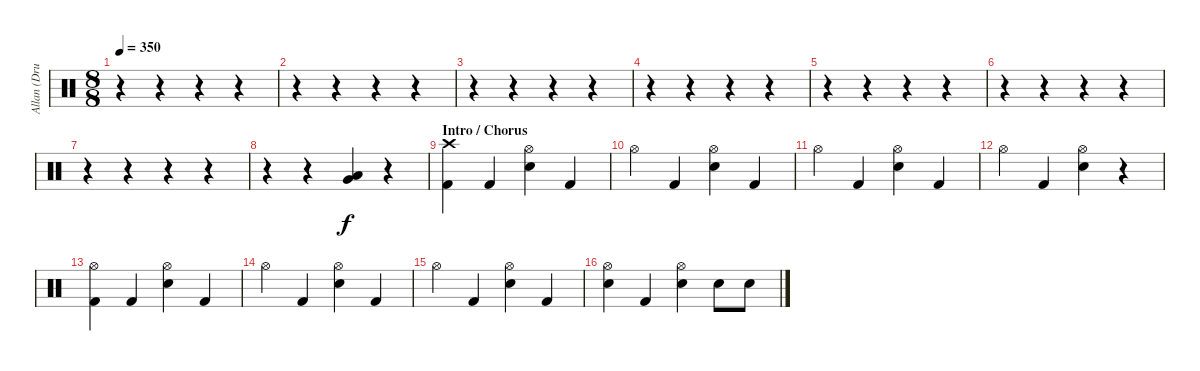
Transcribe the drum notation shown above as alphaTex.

\track ("Allan (Drums)" "Allan (Dru") {instrument percussion}
\staff {score}
\articulation defaults
\ts (8 8)
\tempo 350
\clef neutral
\ks c
r.4{dy f} r.4 r.4 r.4 |
r.4 r.4 r.4 r.4 |
r.4 r.4 r.4 r.4 |
r.4 r.4 r.4 r.4 |
r.4 r.4 r.4 r.4 |
r.4 r.4 r.4 r.4 |
r.4 r.4 r.4 r.4 |
r.4 r.4 ("Very Low Tom (hit)" "Low Tom (hit)").4 r.4 |
\section ("" "Intro / Chorus")
("Crash high (hit)" "Kick (hit) 2").4 "Kick (hit) 2".4 ("Hi-Hat (open)" "Snare (hit) 2").4 "Kick (hit) 2".4 |
"Hi-Hat (open)".4 "Kick (hit) 2".4 ("Hi-Hat (open)" "Snare (hit) 2").4 "Kick (hit) 2".4 |
"Hi-Hat (open)".4 "Kick (hit) 2".4 ("Hi-Hat (open)" "Snare (hit) 2").4 "Kick (hit) 2".4 |
"Hi-Hat (open)".4 "Kick (hit) 2".4 ("Hi-Hat (open)" "Snare (hit) 2").4 r.4 |
("Hi-Hat (open)" "Kick (hit) 2").4 "Kick (hit) 2".4 ("Hi-Hat (open)" "Snare (hit) 2").4 "Kick (hit) 2".4 |
"Hi-Hat (open)".4 "Kick (hit) 2".4 ("Hi-Hat (open)" "Snare (hit) 2").4 "Kick (hit) 2".4 |
"Hi-Hat (open)".4 "Kick (hit) 2".4 ("Hi-Hat (open)" "Snare (hit) 2").4 "Kick (hit) 2".4 |
("Hi-Hat (open)" "Snare (hit) 2").4 "Kick (hit) 2".4 ("Hi-Hat (open)" "Snare (hit) 2").4 "Snare (hit) 2".8 "Snare (hit) 2".8
